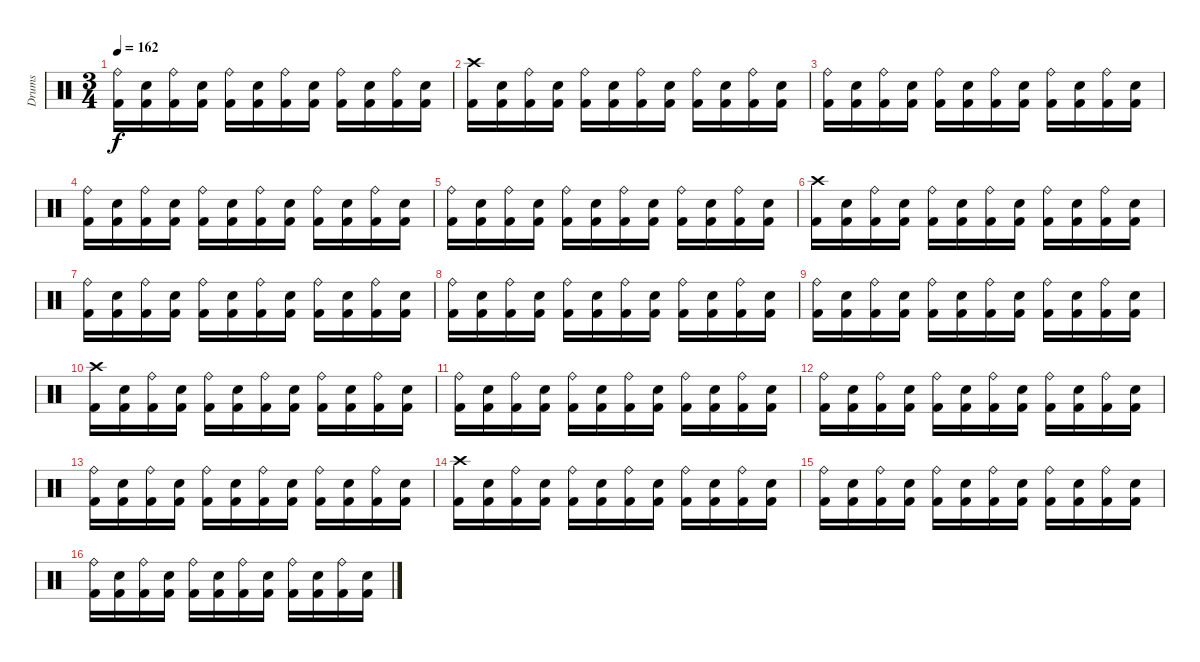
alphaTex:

\track ("Drums" "Drums") {instrument percussion}
\staff {score}
\articulation defaults
\ts (3 4)
\tempo 162
\clef neutral
\ks c
("Ride (bell)" "Kick (hit) 2").16{dy f} ("Snare (hit) 2" "Kick (hit) 2").16 ("Ride (bell)" "Kick (hit) 2").16 ("Snare (hit) 2" "Kick (hit) 2").16 ("Ride (bell)" "Kick (hit) 2").16 ("Snare (hit) 2" "Kick (hit) 2").16 ("Ride (bell)" "Kick (hit) 2").16 ("Snare (hit) 2" "Kick (hit) 2").16 ("Ride (bell)" "Kick (hit) 2").16 ("Snare (hit) 2" "Kick (hit) 2").16 ("Ride (bell)" "Kick (hit) 2").16 ("Snare (hit) 2" "Kick (hit) 2").16 |
("Crash high (hit)" "Kick (hit) 2").16 ("Snare (hit) 2" "Kick (hit) 2").16 ("Ride (bell)" "Kick (hit) 2").16 ("Snare (hit) 2" "Kick (hit) 2").16 ("Ride (bell)" "Kick (hit) 2").16 ("Snare (hit) 2" "Kick (hit) 2").16 ("Ride (bell)" "Kick (hit) 2").16 ("Snare (hit) 2" "Kick (hit) 2").16 ("Ride (bell)" "Kick (hit) 2").16 ("Snare (hit) 2" "Kick (hit) 2").16 ("Ride (bell)" "Kick (hit) 2").16 ("Snare (hit) 2" "Kick (hit) 2").16 |
("Ride (bell)" "Kick (hit) 2").16 ("Snare (hit) 2" "Kick (hit) 2").16 ("Ride (bell)" "Kick (hit) 2").16 ("Snare (hit) 2" "Kick (hit) 2").16 ("Ride (bell)" "Kick (hit) 2").16 ("Snare (hit) 2" "Kick (hit) 2").16 ("Ride (bell)" "Kick (hit) 2").16 ("Snare (hit) 2" "Kick (hit) 2").16 ("Ride (bell)" "Kick (hit) 2").16 ("Snare (hit) 2" "Kick (hit) 2").16 ("Ride (bell)" "Kick (hit) 2").16 ("Snare (hit) 2" "Kick (hit) 2").16 |
("Ride (bell)" "Kick (hit) 2").16 ("Snare (hit) 2" "Kick (hit) 2").16 ("Ride (bell)" "Kick (hit) 2").16 ("Snare (hit) 2" "Kick (hit) 2").16 ("Ride (bell)" "Kick (hit) 2").16 ("Snare (hit) 2" "Kick (hit) 2").16 ("Ride (bell)" "Kick (hit) 2").16 ("Snare (hit) 2" "Kick (hit) 2").16 ("Ride (bell)" "Kick (hit) 2").16 ("Snare (hit) 2" "Kick (hit) 2").16 ("Ride (bell)" "Kick (hit) 2").16 ("Snare (hit) 2" "Kick (hit) 2").16 |
("Ride (bell)" "Kick (hit) 2").16 ("Snare (hit) 2" "Kick (hit) 2").16 ("Ride (bell)" "Kick (hit) 2").16 ("Snare (hit) 2" "Kick (hit) 2").16 ("Ride (bell)" "Kick (hit) 2").16 ("Snare (hit) 2" "Kick (hit) 2").16 ("Ride (bell)" "Kick (hit) 2").16 ("Snare (hit) 2" "Kick (hit) 2").16 ("Ride (bell)" "Kick (hit) 2").16 ("Snare (hit) 2" "Kick (hit) 2").16 ("Ride (bell)" "Kick (hit) 2").16 ("Snare (hit) 2" "Kick (hit) 2").16 |
("Crash high (hit)" "Kick (hit) 2").16 ("Snare (hit) 2" "Kick (hit) 2").16 ("Ride (bell)" "Kick (hit) 2").16 ("Snare (hit) 2" "Kick (hit) 2").16 ("Ride (bell)" "Kick (hit) 2").16 ("Snare (hit) 2" "Kick (hit) 2").16 ("Ride (bell)" "Kick (hit) 2").16 ("Snare (hit) 2" "Kick (hit) 2").16 ("Ride (bell)" "Kick (hit) 2").16 ("Snare (hit) 2" "Kick (hit) 2").16 ("Ride (bell)" "Kick (hit) 2").16 ("Snare (hit) 2" "Kick (hit) 2").16 |
("Ride (bell)" "Kick (hit) 2").16 ("Snare (hit) 2" "Kick (hit) 2").16 ("Ride (bell)" "Kick (hit) 2").16 ("Snare (hit) 2" "Kick (hit) 2").16 ("Ride (bell)" "Kick (hit) 2").16 ("Snare (hit) 2" "Kick (hit) 2").16 ("Ride (bell)" "Kick (hit) 2").16 ("Snare (hit) 2" "Kick (hit) 2").16 ("Ride (bell)" "Kick (hit) 2").16 ("Snare (hit) 2" "Kick (hit) 2").16 ("Ride (bell)" "Kick (hit) 2").16 ("Snare (hit) 2" "Kick (hit) 2").16 |
("Ride (bell)" "Kick (hit) 2").16 ("Snare (hit) 2" "Kick (hit) 2").16 ("Ride (bell)" "Kick (hit) 2").16 ("Snare (hit) 2" "Kick (hit) 2").16 ("Ride (bell)" "Kick (hit) 2").16 ("Snare (hit) 2" "Kick (hit) 2").16 ("Ride (bell)" "Kick (hit) 2").16 ("Snare (hit) 2" "Kick (hit) 2").16 ("Ride (bell)" "Kick (hit) 2").16 ("Snare (hit) 2" "Kick (hit) 2").16 ("Ride (bell)" "Kick (hit) 2").16 ("Snare (hit) 2" "Kick (hit) 2").16 |
("Ride (bell)" "Kick (hit) 2").16 ("Snare (hit) 2" "Kick (hit) 2").16 ("Ride (bell)" "Kick (hit) 2").16 ("Snare (hit) 2" "Kick (hit) 2").16 ("Ride (bell)" "Kick (hit) 2").16 ("Snare (hit) 2" "Kick (hit) 2").16 ("Ride (bell)" "Kick (hit) 2").16 ("Snare (hit) 2" "Kick (hit) 2").16 ("Ride (bell)" "Kick (hit) 2").16 ("Snare (hit) 2" "Kick (hit) 2").16 ("Ride (bell)" "Kick (hit) 2").16 ("Snare (hit) 2" "Kick (hit) 2").16 |
("Crash high (hit)" "Kick (hit) 2").16 ("Snare (hit) 2" "Kick (hit) 2").16 ("Ride (bell)" "Kick (hit) 2").16 ("Snare (hit) 2" "Kick (hit) 2").16 ("Ride (bell)" "Kick (hit) 2").16 ("Snare (hit) 2" "Kick (hit) 2").16 ("Ride (bell)" "Kick (hit) 2").16 ("Snare (hit) 2" "Kick (hit) 2").16 ("Ride (bell)" "Kick (hit) 2").16 ("Snare (hit) 2" "Kick (hit) 2").16 ("Ride (bell)" "Kick (hit) 2").16 ("Snare (hit) 2" "Kick (hit) 2").16 |
("Ride (bell)" "Kick (hit) 2").16 ("Snare (hit) 2" "Kick (hit) 2").16 ("Ride (bell)" "Kick (hit) 2").16 ("Snare (hit) 2" "Kick (hit) 2").16 ("Ride (bell)" "Kick (hit) 2").16 ("Snare (hit) 2" "Kick (hit) 2").16 ("Ride (bell)" "Kick (hit) 2").16 ("Snare (hit) 2" "Kick (hit) 2").16 ("Ride (bell)" "Kick (hit) 2").16 ("Snare (hit) 2" "Kick (hit) 2").16 ("Ride (bell)" "Kick (hit) 2").16 ("Snare (hit) 2" "Kick (hit) 2").16 |
("Ride (bell)" "Kick (hit) 2").16 ("Snare (hit) 2" "Kick (hit) 2").16 ("Ride (bell)" "Kick (hit) 2").16 ("Snare (hit) 2" "Kick (hit) 2").16 ("Ride (bell)" "Kick (hit) 2").16 ("Snare (hit) 2" "Kick (hit) 2").16 ("Ride (bell)" "Kick (hit) 2").16 ("Snare (hit) 2" "Kick (hit) 2").16 ("Ride (bell)" "Kick (hit) 2").16 ("Snare (hit) 2" "Kick (hit) 2").16 ("Ride (bell)" "Kick (hit) 2").16 ("Snare (hit) 2" "Kick (hit) 2").16 |
("Ride (bell)" "Kick (hit) 2").16 ("Snare (hit) 2" "Kick (hit) 2").16 ("Ride (bell)" "Kick (hit) 2").16 ("Snare (hit) 2" "Kick (hit) 2").16 ("Ride (bell)" "Kick (hit) 2").16 ("Snare (hit) 2" "Kick (hit) 2").16 ("Ride (bell)" "Kick (hit) 2").16 ("Snare (hit) 2" "Kick (hit) 2").16 ("Ride (bell)" "Kick (hit) 2").16 ("Snare (hit) 2" "Kick (hit) 2").16 ("Ride (bell)" "Kick (hit) 2").16 ("Snare (hit) 2" "Kick (hit) 2").16 |
("Crash high (hit)" "Kick (hit) 2").16 ("Snare (hit) 2" "Kick (hit) 2").16 ("Ride (bell)" "Kick (hit) 2").16 ("Snare (hit) 2" "Kick (hit) 2").16 ("Ride (bell)" "Kick (hit) 2").16 ("Snare (hit) 2" "Kick (hit) 2").16 ("Ride (bell)" "Kick (hit) 2").16 ("Snare (hit) 2" "Kick (hit) 2").16 ("Ride (bell)" "Kick (hit) 2").16 ("Snare (hit) 2" "Kick (hit) 2").16 ("Ride (bell)" "Kick (hit) 2").16 ("Snare (hit) 2" "Kick (hit) 2").16 |
("Ride (bell)" "Kick (hit) 2").16 ("Snare (hit) 2" "Kick (hit) 2").16 ("Ride (bell)" "Kick (hit) 2").16 ("Snare (hit) 2" "Kick (hit) 2").16 ("Ride (bell)" "Kick (hit) 2").16 ("Snare (hit) 2" "Kick (hit) 2").16 ("Ride (bell)" "Kick (hit) 2").16 ("Snare (hit) 2" "Kick (hit) 2").16 ("Ride (bell)" "Kick (hit) 2").16 ("Snare (hit) 2" "Kick (hit) 2").16 ("Ride (bell)" "Kick (hit) 2").16 ("Snare (hit) 2" "Kick (hit) 2").16 |
("Ride (bell)" "Kick (hit) 2").16 ("Snare (hit) 2" "Kick (hit) 2").16 ("Ride (bell)" "Kick (hit) 2").16 ("Snare (hit) 2" "Kick (hit) 2").16 ("Ride (bell)" "Kick (hit) 2").16 ("Snare (hit) 2" "Kick (hit) 2").16 ("Ride (bell)" "Kick (hit) 2").16 ("Snare (hit) 2" "Kick (hit) 2").16 ("Ride (bell)" "Kick (hit) 2").16 ("Snare (hit) 2" "Kick (hit) 2").16 ("Ride (bell)" "Kick (hit) 2").16 ("Snare (hit) 2" "Kick (hit) 2").16
